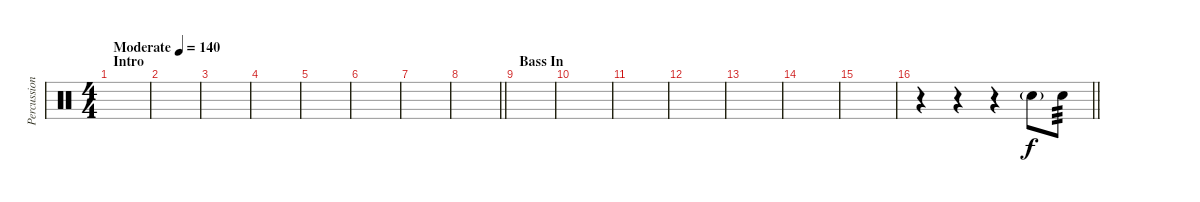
\track ("Percussion" "Percussion") {instrument percussion}
\staff {score}
\articulation defaults
\ts (4 4)
\section ("" "Intro")
\tempo (140 "Moderate")
\clef neutral
\ks c
|
|
|
|
|
|
|
\barLineRight lightlight
|
\section ("" "Bass In")
|
|
|
|
|
|
|
\barLineRight lightlight
r.4 r.4 r.4 "Electric Snare (hit)"{g}.8 "Electric Snare (hit)".8{tp 3 dy f}
